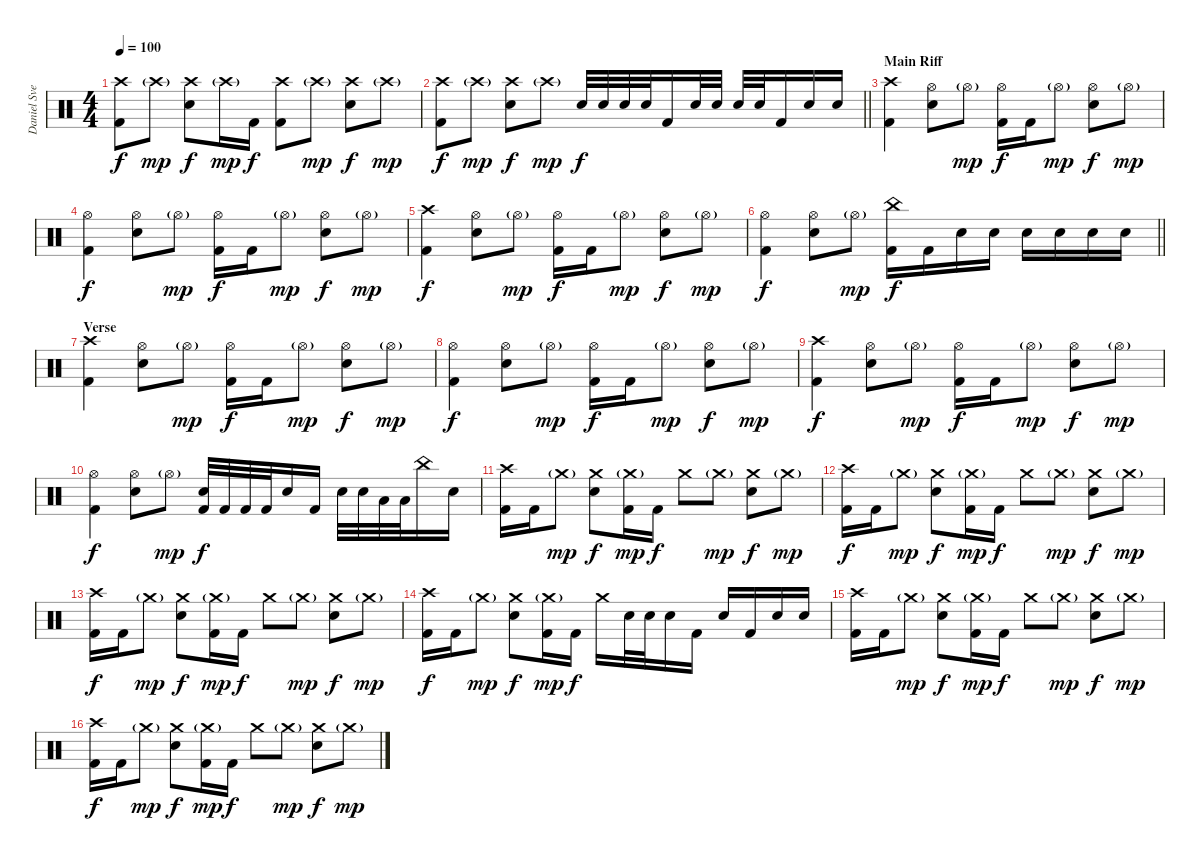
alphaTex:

\track ("Daniel Svensson" "Daniel Sve") {instrument percussion}
\staff {score}
\articulation defaults
\ts (4 4)
\tempo 100
\clef neutral
\ks c
("Crash high (hit)" "Kick (hit) 2").8{dy f} "Crash high (hit)"{g}.8{dy mp} ("Crash high (hit)" "Snare (hit) 2").8{dy f} "Crash high (hit)"{g}.16{dy mp} "Kick (hit) 2".16{dy f} ("Crash high (hit)" "Kick (hit) 2").8 "Crash high (hit)"{g}.8{dy mp} ("Crash high (hit)" "Snare (hit) 2").8{dy f} "Crash high (hit)"{g}.8{dy mp} |
\barLineRight lightlight
("Crash high (hit)" "Kick (hit) 2").8{dy f} "Crash high (hit)"{g}.8{dy mp} ("Crash high (hit)" "Snare (hit) 2").8{dy f} "Crash high (hit)"{g}.8{dy mp} "Snare (hit) 2".32{dy f} "Snare (hit) 2".32 "Snare (hit) 2".32 "Snare (hit) 2".32 "Kick (hit) 2".16 "Snare (hit) 2".32 "Snare (hit) 2".32 "Snare (hit) 2".32 "Snare (hit) 2".32 "Kick (hit) 2".16 "Snare (hit) 2".16 "Snare (hit) 2".16 |
\section ("" "Main Riff")
("Crash high (hit)" "Kick (hit) 2").4 ("Hi-Hat (open)" "Snare (hit) 2").8 "Hi-Hat (open)"{g}.8{dy mp} ("Hi-Hat (open)" "Kick (hit) 2").16{dy f} "Kick (hit) 2".16 "Hi-Hat (open)"{g}.8{dy mp} ("Hi-Hat (open)" "Snare (hit) 2").8{dy f} "Hi-Hat (open)"{g}.8{dy mp} |
("Hi-Hat (open)" "Kick (hit) 2").4{dy f} ("Hi-Hat (open)" "Snare (hit) 2").8 "Hi-Hat (open)"{g}.8{dy mp} ("Hi-Hat (open)" "Kick (hit) 2").16{dy f} "Kick (hit) 2".16 "Hi-Hat (open)"{g}.8{dy mp} ("Hi-Hat (open)" "Snare (hit) 2").8{dy f} "Hi-Hat (open)"{g}.8{dy mp} |
("Crash high (hit)" "Kick (hit) 2").4{dy f} ("Hi-Hat (open)" "Snare (hit) 2").8 "Hi-Hat (open)"{g}.8{dy mp} ("Hi-Hat (open)" "Kick (hit) 2").16{dy f} "Kick (hit) 2".16 "Hi-Hat (open)"{g}.8{dy mp} ("Hi-Hat (open)" "Snare (hit) 2").8{dy f} "Hi-Hat (open)"{g}.8{dy mp} |
\barLineRight lightlight
("Hi-Hat (open)" "Kick (hit) 2").4{dy f} ("Hi-Hat (open)" "Snare (hit) 2").8 "Hi-Hat (open)"{g}.8{dy mp} ("China (hit)" "Kick (hit) 2").16{dy f} "Kick (hit) 2".16 "Snare (hit) 2".16 "Snare (hit) 2".16 "Snare (hit) 2".16 "Snare (hit) 2".16 "Snare (hit) 2".16 "Snare (hit) 2".16 |
\section ("" "Verse")
("Crash high (hit)" "Kick (hit) 2").4 ("Hi-Hat (open)" "Snare (hit) 2").8 "Hi-Hat (open)"{g}.8{dy mp} ("Hi-Hat (open)" "Kick (hit) 2").16{dy f} "Kick (hit) 2".16 "Hi-Hat (open)"{g}.8{dy mp} ("Hi-Hat (open)" "Snare (hit) 2").8{dy f} "Hi-Hat (open)"{g}.8{dy mp} |
("Hi-Hat (open)" "Kick (hit) 2").4{dy f} ("Hi-Hat (open)" "Snare (hit) 2").8 "Hi-Hat (open)"{g}.8{dy mp} ("Hi-Hat (open)" "Kick (hit) 2").16{dy f} "Kick (hit) 2".16 "Hi-Hat (open)"{g}.8{dy mp} ("Hi-Hat (open)" "Snare (hit) 2").8{dy f} "Hi-Hat (open)"{g}.8{dy mp} |
("Crash high (hit)" "Kick (hit) 2").4{dy f} ("Hi-Hat (open)" "Snare (hit) 2").8 "Hi-Hat (open)"{g}.8{dy mp} ("Hi-Hat (open)" "Kick (hit) 2").16{dy f} "Kick (hit) 2".16 "Hi-Hat (open)"{g}.8{dy mp} ("Hi-Hat (open)" "Snare (hit) 2").8{dy f} "Hi-Hat (open)"{g}.8{dy mp} |
("Hi-Hat (open)" "Kick (hit) 2").4{dy f} ("Hi-Hat (open)" "Snare (hit) 2").8 "Hi-Hat (open)"{g}.8{dy mp} ("Snare (hit) 2" "Kick (hit) 2").32{dy f} "Kick (hit) 2".32 "Kick (hit) 2".32 "Kick (hit) 2".32 "Snare (hit) 2".16 "Kick (hit) 2".16 "Snare (hit) 2".32 "Snare (hit) 2".32 "Low Tom (hit)".32 "Low Tom (hit)".32 "China (hit)".16 "Snare (hit) 2".16 |
("Crash high (hit)" "Kick (hit) 2").16 "Kick (hit) 2".16 "Crash medium (hit)"{g}.8{dy mp} ("Crash medium (hit)" "Snare (hit) 2").8{dy f} ("Crash medium (hit)"{g} "Kick (hit) 2").16{dy mp} "Kick (hit) 2".16{dy f} "Crash medium (hit)".8 "Crash medium (hit)"{g}.8{dy mp} ("Crash medium (hit)" "Snare (hit) 2").8{dy f} "Crash medium (hit)"{g}.8{dy mp} |
("Crash high (hit)" "Kick (hit) 2").16{dy f} "Kick (hit) 2".16 "Crash medium (hit)"{g}.8{dy mp} ("Crash medium (hit)" "Snare (hit) 2").8{dy f} ("Crash medium (hit)"{g} "Kick (hit) 2").16{dy mp} "Kick (hit) 2".16{dy f} "Crash medium (hit)".8 "Crash medium (hit)"{g}.8{dy mp} ("Crash medium (hit)" "Snare (hit) 2").8{dy f} "Crash medium (hit)"{g}.8{dy mp} |
("Crash high (hit)" "Kick (hit) 2").16{dy f} "Kick (hit) 2".16 "Crash medium (hit)"{g}.8{dy mp} ("Crash medium (hit)" "Snare (hit) 2").8{dy f} ("Crash medium (hit)"{g} "Kick (hit) 2").16{dy mp} "Kick (hit) 2".16{dy f} "Crash medium (hit)".8 "Crash medium (hit)"{g}.8{dy mp} ("Crash medium (hit)" "Snare (hit) 2").8{dy f} "Crash medium (hit)"{g}.8{dy mp} |
("Crash high (hit)" "Kick (hit) 2").16{dy f} "Kick (hit) 2".16 "Crash medium (hit)"{g}.8{dy mp} ("Crash medium (hit)" "Snare (hit) 2").8{dy f} ("Crash medium (hit)"{g} "Kick (hit) 2").16{dy mp} "Kick (hit) 2".16{dy f} "Crash medium (hit)".16 "Snare (hit) 2".32 "Snare (hit) 2".32 "Snare (hit) 2".16 "Kick (hit) 2".16 "Snare (hit) 2".16 "Kick (hit) 2".16 "Snare (hit) 2".16 "Snare (hit) 2".16 |
("Crash high (hit)" "Kick (hit) 2").16 "Kick (hit) 2".16 "Crash medium (hit)"{g}.8{dy mp} ("Crash medium (hit)" "Snare (hit) 2").8{dy f} ("Crash medium (hit)"{g} "Kick (hit) 2").16{dy mp} "Kick (hit) 2".16{dy f} "Crash medium (hit)".8 "Crash medium (hit)"{g}.8{dy mp} ("Crash medium (hit)" "Snare (hit) 2").8{dy f} "Crash medium (hit)"{g}.8{dy mp} |
("Crash high (hit)" "Kick (hit) 2").16{dy f} "Kick (hit) 2".16 "Crash medium (hit)"{g}.8{dy mp} ("Crash medium (hit)" "Snare (hit) 2").8{dy f} ("Crash medium (hit)"{g} "Kick (hit) 2").16{dy mp} "Kick (hit) 2".16{dy f} "Crash medium (hit)".8 "Crash medium (hit)"{g}.8{dy mp} ("Crash medium (hit)" "Snare (hit) 2").8{dy f} "Crash medium (hit)"{g}.8{dy mp}
